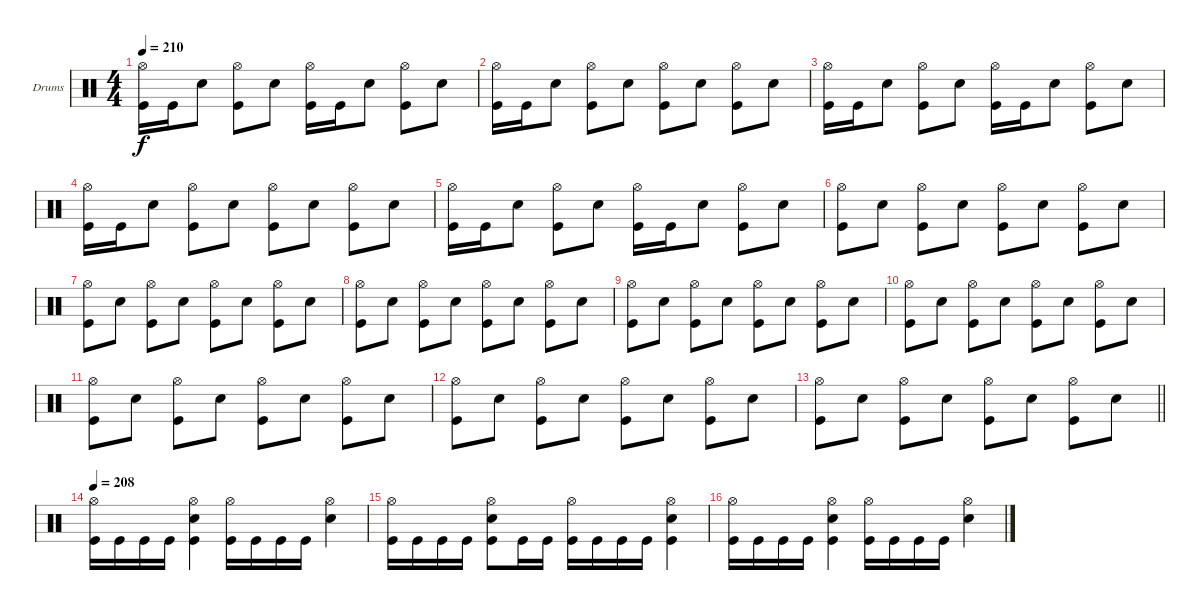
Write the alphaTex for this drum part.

\bracketExtendMode groupsimilarinstruments
\firstSystemTrackNameOrientation horizontal
\otherSystemsTrackNameOrientation horizontal
\track ("Drumkit" "Drums") {instrument percussion}
\staff {score}
\articulation defaults
\ts (4 4)
\tempo 210
\clef neutral
\ks c
("Hi-Hat (open)" "Kick (hit)").16{dy f} "Kick (hit)".16 "Snare (hit) 2".8 ("Hi-Hat (open)" "Kick (hit)").8 "Snare (hit) 2".8 ("Hi-Hat (open)" "Kick (hit)").16 "Kick (hit)".16 "Snare (hit) 2".8 ("Hi-Hat (open)" "Kick (hit)").8 "Snare (hit) 2".8 |
("Hi-Hat (open)" "Kick (hit)").16 "Kick (hit)".16 "Snare (hit) 2".8 ("Hi-Hat (open)" "Kick (hit)").8 "Snare (hit) 2".8 ("Hi-Hat (open)" "Kick (hit)").8 "Snare (hit) 2".8 ("Hi-Hat (open)" "Kick (hit)").8 "Snare (hit) 2".8 |
("Hi-Hat (open)" "Kick (hit)").16 "Kick (hit)".16 "Snare (hit) 2".8 ("Hi-Hat (open)" "Kick (hit)").8 "Snare (hit) 2".8 ("Hi-Hat (open)" "Kick (hit)").16 "Kick (hit)".16 "Snare (hit) 2".8 ("Hi-Hat (open)" "Kick (hit)").8 "Snare (hit) 2".8 |
("Hi-Hat (open)" "Kick (hit)").16 "Kick (hit)".16 "Snare (hit) 2".8 ("Hi-Hat (open)" "Kick (hit)").8 "Snare (hit) 2".8 ("Hi-Hat (open)" "Kick (hit)").8 "Snare (hit) 2".8 ("Hi-Hat (open)" "Kick (hit)").8 "Snare (hit) 2".8 |
("Hi-Hat (open)" "Kick (hit)").16 "Kick (hit)".16 "Snare (hit) 2".8 ("Hi-Hat (open)" "Kick (hit)").8 "Snare (hit) 2".8 ("Hi-Hat (open)" "Kick (hit)").16 "Kick (hit)".16 "Snare (hit) 2".8 ("Hi-Hat (open)" "Kick (hit)").8 "Snare (hit) 2".8 |
("Hi-Hat (open)" "Kick (hit)").8 "Snare (hit) 2".8 ("Hi-Hat (open)" "Kick (hit)").8 "Snare (hit) 2".8 ("Hi-Hat (open)" "Kick (hit)").8 "Snare (hit) 2".8 ("Hi-Hat (open)" "Kick (hit)").8 "Snare (hit) 2".8 |
("Hi-Hat (open)" "Kick (hit)").8 "Snare (hit) 2".8 ("Hi-Hat (open)" "Kick (hit)").8 "Snare (hit) 2".8 ("Hi-Hat (open)" "Kick (hit)").8 "Snare (hit) 2".8 ("Hi-Hat (open)" "Kick (hit)").8 "Snare (hit) 2".8 |
("Hi-Hat (open)" "Kick (hit)").8 "Snare (hit) 2".8 ("Hi-Hat (open)" "Kick (hit)").8 "Snare (hit) 2".8 ("Hi-Hat (open)" "Kick (hit)").8 "Snare (hit) 2".8 ("Hi-Hat (open)" "Kick (hit)").8 "Snare (hit) 2".8 |
("Hi-Hat (open)" "Kick (hit)").8 "Snare (hit) 2".8 ("Hi-Hat (open)" "Kick (hit)").8 "Snare (hit) 2".8 ("Hi-Hat (open)" "Kick (hit)").8 "Snare (hit) 2".8 ("Hi-Hat (open)" "Kick (hit)").8 "Snare (hit) 2".8 |
("Hi-Hat (open)" "Kick (hit)").8 "Snare (hit) 2".8 ("Hi-Hat (open)" "Kick (hit)").8 "Snare (hit) 2".8 ("Hi-Hat (open)" "Kick (hit)").8 "Snare (hit) 2".8 ("Hi-Hat (open)" "Kick (hit)").8 "Snare (hit) 2".8 |
("Hi-Hat (open)" "Kick (hit)").8 "Snare (hit) 2".8 ("Hi-Hat (open)" "Kick (hit)").8 "Snare (hit) 2".8 ("Hi-Hat (open)" "Kick (hit)").8 "Snare (hit) 2".8 ("Hi-Hat (open)" "Kick (hit)").8 "Snare (hit) 2".8 |
("Hi-Hat (open)" "Kick (hit)").8 "Snare (hit) 2".8 ("Hi-Hat (open)" "Kick (hit)").8 "Snare (hit) 2".8 ("Hi-Hat (open)" "Kick (hit)").8 "Snare (hit) 2".8 ("Hi-Hat (open)" "Kick (hit)").8 "Snare (hit) 2".8 |
\barLineRight lightlight
("Hi-Hat (open)" "Kick (hit)").8 "Snare (hit) 2".8 ("Hi-Hat (open)" "Kick (hit)").8 "Snare (hit) 2".8 ("Hi-Hat (open)" "Kick (hit)").8 "Snare (hit) 2".8 ("Hi-Hat (open)" "Kick (hit)").8 "Snare (hit) 2".8 |
\tempo 208
("Hi-Hat (open)" "Kick (hit)").16 "Kick (hit)".16 "Kick (hit)".16 "Kick (hit)".16 ("Hi-Hat (open)" "Kick (hit)" "Snare (hit) 2").4 ("Hi-Hat (open)" "Kick (hit)").16 "Kick (hit)".16 "Kick (hit)".16 "Kick (hit)".16 ("Hi-Hat (open)" "Snare (hit) 2").4 |
("Hi-Hat (open)" "Kick (hit)").16 "Kick (hit)".16 "Kick (hit)".16 "Kick (hit)".16 ("Hi-Hat (open)" "Kick (hit)" "Snare (hit) 2").8 "Kick (hit)".16 "Kick (hit)".16 ("Hi-Hat (open)" "Kick (hit)").16 "Kick (hit)".16 "Kick (hit)".16 "Kick (hit)".16 ("Hi-Hat (open)" "Kick (hit)" "Snare (hit) 2").4 |
("Hi-Hat (open)" "Kick (hit)").16 "Kick (hit)".16 "Kick (hit)".16 "Kick (hit)".16 ("Hi-Hat (open)" "Kick (hit)" "Snare (hit) 2").4 ("Hi-Hat (open)" "Kick (hit)").16 "Kick (hit)".16 "Kick (hit)".16 "Kick (hit)".16 ("Hi-Hat (open)" "Snare (hit) 2").4
